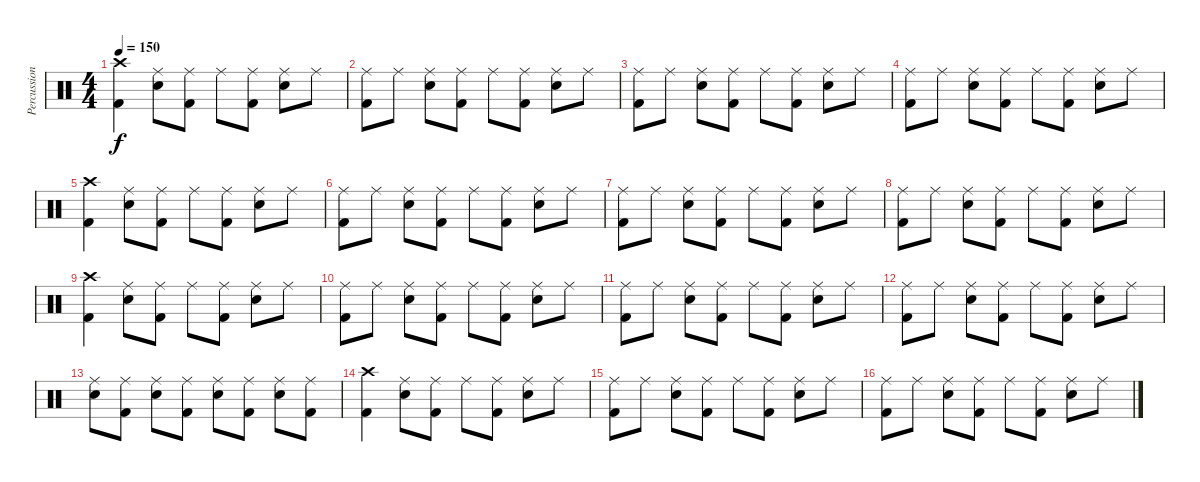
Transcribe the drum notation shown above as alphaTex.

\track ("Percussions" "Percussion") {instrument percussion}
\staff {score}
\articulation defaults
\ts (4 4)
\tempo 150
\clef neutral
\ks c
("Crash high (hit)" "Kick (hit) 2").4{dy f} ("Ride (middle)" "Snare (hit) 2").8 ("Ride (middle)" "Kick (hit) 2").8 "Ride (middle)".8 ("Ride (middle)" "Kick (hit) 2").8 ("Ride (middle)" "Snare (hit) 2").8 "Ride (middle)".8 |
("Ride (middle)" "Kick (hit) 2").8 "Ride (middle)".8 ("Ride (middle)" "Snare (hit) 2").8 ("Ride (middle)" "Kick (hit) 2").8 "Ride (middle)".8 ("Ride (middle)" "Kick (hit) 2").8 ("Ride (middle)" "Snare (hit) 2").8 "Ride (middle)".8 |
("Ride (middle)" "Kick (hit) 2").8 "Ride (middle)".8 ("Ride (middle)" "Snare (hit) 2").8 ("Ride (middle)" "Kick (hit) 2").8 "Ride (middle)".8 ("Ride (middle)" "Kick (hit) 2").8 ("Ride (middle)" "Snare (hit) 2").8 "Ride (middle)".8 |
("Ride (middle)" "Kick (hit) 2").8 "Ride (middle)".8 ("Ride (middle)" "Snare (hit) 2").8 ("Ride (middle)" "Kick (hit) 2").8 "Ride (middle)".8 ("Ride (middle)" "Kick (hit) 2").8 ("Ride (middle)" "Snare (hit) 2").8 "Ride (middle)".8 |
("Crash high (hit)" "Kick (hit) 2").4 ("Ride (middle)" "Snare (hit) 2").8 ("Ride (middle)" "Kick (hit) 2").8 "Ride (middle)".8 ("Ride (middle)" "Kick (hit) 2").8 ("Ride (middle)" "Snare (hit) 2").8 "Ride (middle)".8 |
("Ride (middle)" "Kick (hit) 2").8 "Ride (middle)".8 ("Ride (middle)" "Snare (hit) 2").8 ("Ride (middle)" "Kick (hit) 2").8 "Ride (middle)".8 ("Ride (middle)" "Kick (hit) 2").8 ("Ride (middle)" "Snare (hit) 2").8 "Ride (middle)".8 |
("Ride (middle)" "Kick (hit) 2").8 "Ride (middle)".8 ("Ride (middle)" "Snare (hit) 2").8 ("Ride (middle)" "Kick (hit) 2").8 "Ride (middle)".8 ("Ride (middle)" "Kick (hit) 2").8 ("Ride (middle)" "Snare (hit) 2").8 "Ride (middle)".8 |
("Ride (middle)" "Kick (hit) 2").8 "Ride (middle)".8 ("Ride (middle)" "Snare (hit) 2").8 ("Ride (middle)" "Kick (hit) 2").8 "Ride (middle)".8 ("Ride (middle)" "Kick (hit) 2").8 ("Ride (middle)" "Snare (hit) 2").8 "Ride (middle)".8 |
("Crash high (hit)" "Kick (hit) 2").4 ("Ride (middle)" "Snare (hit) 2").8 ("Ride (middle)" "Kick (hit) 2").8 "Ride (middle)".8 ("Ride (middle)" "Kick (hit) 2").8 ("Ride (middle)" "Snare (hit) 2").8 "Ride (middle)".8 |
("Ride (middle)" "Kick (hit) 2").8 "Ride (middle)".8 ("Ride (middle)" "Snare (hit) 2").8 ("Ride (middle)" "Kick (hit) 2").8 "Ride (middle)".8 ("Ride (middle)" "Kick (hit) 2").8 ("Ride (middle)" "Snare (hit) 2").8 "Ride (middle)".8 |
("Ride (middle)" "Kick (hit) 2").8 "Ride (middle)".8 ("Ride (middle)" "Snare (hit) 2").8 ("Ride (middle)" "Kick (hit) 2").8 "Ride (middle)".8 ("Ride (middle)" "Kick (hit) 2").8 ("Ride (middle)" "Snare (hit) 2").8 "Ride (middle)".8 |
("Ride (middle)" "Kick (hit) 2").8 "Ride (middle)".8 ("Ride (middle)" "Snare (hit) 2").8 ("Ride (middle)" "Kick (hit) 2").8 "Ride (middle)".8 ("Ride (middle)" "Kick (hit) 2").8 ("Ride (middle)" "Snare (hit) 2").8 "Ride (middle)".8 |
("Ride (middle)" "Snare (hit) 2").8 ("Ride (middle)" "Kick (hit) 2").8 ("Ride (middle)" "Snare (hit) 2").8 ("Ride (middle)" "Kick (hit) 2").8 ("Ride (middle)" "Snare (hit) 2").8 ("Ride (middle)" "Kick (hit) 2").8 ("Ride (middle)" "Snare (hit) 2").8 ("Ride (middle)" "Kick (hit) 2").8 |
("Crash high (hit)" "Kick (hit) 2").4 ("Ride (middle)" "Snare (hit) 2").8 ("Ride (middle)" "Kick (hit) 2").8 "Ride (middle)".8 ("Ride (middle)" "Kick (hit) 2").8 ("Ride (middle)" "Snare (hit) 2").8 "Ride (middle)".8 |
("Ride (middle)" "Kick (hit) 2").8 "Ride (middle)".8 ("Ride (middle)" "Snare (hit) 2").8 ("Ride (middle)" "Kick (hit) 2").8 "Ride (middle)".8 ("Ride (middle)" "Kick (hit) 2").8 ("Ride (middle)" "Snare (hit) 2").8 "Ride (middle)".8 |
("Ride (middle)" "Kick (hit) 2").8 "Ride (middle)".8 ("Ride (middle)" "Snare (hit) 2").8 ("Ride (middle)" "Kick (hit) 2").8 "Ride (middle)".8 ("Ride (middle)" "Kick (hit) 2").8 ("Ride (middle)" "Snare (hit) 2").8 "Ride (middle)".8
